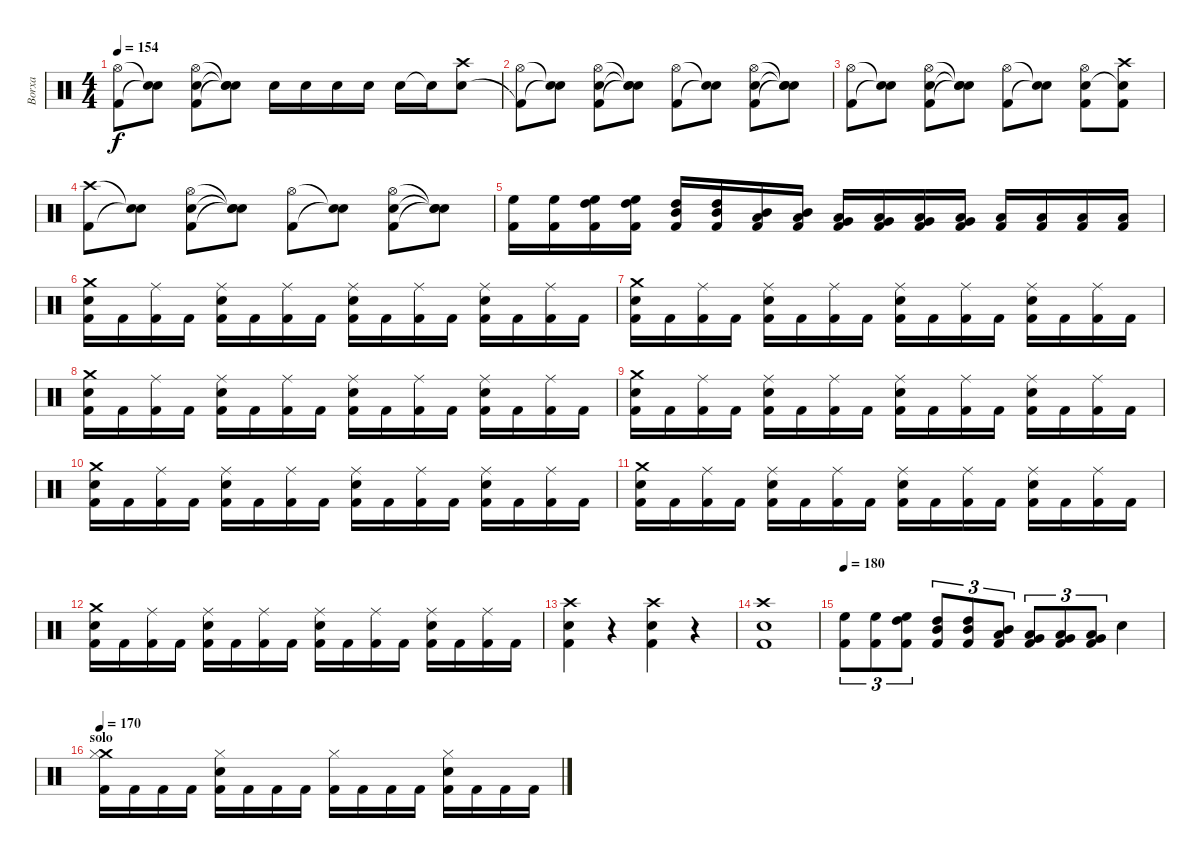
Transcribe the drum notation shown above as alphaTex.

\track ("Borxa" "Borxa") {instrument percussion}
\staff {score}
\articulation defaults
\ts (4 4)
\tempo 154
\clef neutral
\ks c
("Hi-Hat (open)" "Kick (hit) 2").8{dy f} ("Snare (hit)"{t} "Snare (hit)"{t}).8 ("Hi-Hat (open)" "Electric Snare (hit)" "Kick (hit) 2").8 ("Snare (hit)"{t} "Snare (hit)"{t} "Snare (hit)"{t}).8 "Snare (hit) 2".16 "Snare (hit) 2".16 "Snare (hit) 2".16 "Snare (hit) 2".16 "Snare (hit) 2".16 "Snare (hit) 2"{t}.16 ("Crash high (hit)" "Snare (hit) 2").8 |
("Hi-Hat (open)" "Kick (hit) 2"{t}).8 ("Snare (hit)"{t} "Snare (hit)"{t}).8 ("Hi-Hat (open)" "Electric Snare (hit)" "Kick (hit) 2").8 ("Snare (hit)"{t} "Snare (hit)"{t} "Snare (hit)"{t}).8 ("Hi-Hat (open)" "Kick (hit) 2").8 ("Snare (hit)"{t} "Snare (hit)"{t}).8 ("Hi-Hat (open)" "Electric Snare (hit)" "Kick (hit) 2").8 ("Snare (hit)"{t} "Snare (hit)"{t} "Snare (hit)"{t}).8 |
("Hi-Hat (open)" "Kick (hit) 2").8 ("Snare (hit)"{t} "Snare (hit)"{t}).8 ("Hi-Hat (open)" "Electric Snare (hit)" "Kick (hit) 2").8 ("Snare (hit)"{t} "Snare (hit)"{t} "Snare (hit)"{t}).8 ("Hi-Hat (open)" "Kick (hit) 2").8 ("Snare (hit)"{t} "Snare (hit)"{t}).8 ("Hi-Hat (open)" "Electric Snare (hit)" "Kick (hit) 2").8 ("Crash high (hit)" "Snare (hit)"{t} "Kick (hit) 2").8 |
("Crash high (hit)" "Kick (hit) 2").8 ("Snare (hit)"{t} "Snare (hit)"{t}).8 ("Hi-Hat (open)" "Electric Snare (hit)" "Kick (hit) 2").8 ("Snare (hit)"{t} "Snare (hit)"{t} "Snare (hit)"{t}).8 ("Hi-Hat (open)" "Kick (hit) 2").8 ("Snare (hit)"{t} "Snare (hit)"{t}).8 ("Hi-Hat (open)" "Electric Snare (hit)" "Kick (hit) 2").8 ("Snare (hit)"{t} "Snare (hit)"{t} "Snare (hit)"{t}).8 |
("High Floor Tom (hit)" "Kick (hit) 2").16 ("High Floor Tom (hit)" "Kick (hit) 2").16 ("High Floor Tom (hit)" "High Tom (hit)" "Kick (hit) 2").16 ("High Floor Tom (hit)" "High Tom (hit)" "Kick (hit) 2").16 ("High Tom (hit)" "Mid Tom (hit)" "Kick (hit) 2").16 ("High Tom (hit)" "Mid Tom (hit)" "Kick (hit) 2").16 ("Mid Tom (hit)" "Low Tom (hit)" "Kick (hit) 2").16 ("Mid Tom (hit)" "Low Tom (hit)" "Kick (hit) 2").16 ("Low Tom (hit)" "Very Low Tom (hit)" "Kick (hit) 2").16 ("Low Tom (hit)" "Very Low Tom (hit)" "Kick (hit) 2").16 ("Low Floor Tom (hit)" "Very Low Tom (hit)" "Kick (hit) 2").16 ("Low Floor Tom (hit)" "Very Low Tom (hit)" "Kick (hit) 2").16 ("Low Floor Tom (hit)" "Kick (hit) 2").16 ("Low Floor Tom (hit)" "Kick (hit) 2").16 ("Low Floor Tom (hit)" "Kick (hit) 2").16 ("Low Floor Tom (hit)" "Kick (hit) 2").16 |
("Crash medium (hit)" "Snare (hit) 2" "Kick (hit) 2").16 "Kick (hit) 2".16 ("Ride (middle)" "Kick (hit) 2").16 "Kick (hit) 2".16 ("Snare (hit) 2" "Ride (middle)" "Kick (hit) 2").16 "Kick (hit) 2".16 ("Ride (middle)" "Kick (hit) 2").16 "Kick (hit) 2".16 ("Snare (hit) 2" "Ride (middle)" "Kick (hit) 2").16 "Kick (hit) 2".16 ("Ride (middle)" "Kick (hit) 2").16 "Kick (hit) 2".16 ("Snare (hit) 2" "Ride (middle)" "Kick (hit) 2").16 "Kick (hit) 2".16 ("Ride (middle)" "Kick (hit) 2").16 "Kick (hit) 2".16 |
("Crash medium (hit)" "Snare (hit) 2" "Kick (hit) 2").16 "Kick (hit) 2".16 ("Ride (middle)" "Kick (hit) 2").16 "Kick (hit) 2".16 ("Snare (hit) 2" "Ride (middle)" "Kick (hit) 2").16 "Kick (hit) 2".16 ("Ride (middle)" "Kick (hit) 2").16 "Kick (hit) 2".16 ("Snare (hit) 2" "Ride (middle)" "Kick (hit) 2").16 "Kick (hit) 2".16 ("Ride (middle)" "Kick (hit) 2").16 "Kick (hit) 2".16 ("Snare (hit) 2" "Ride (middle)" "Kick (hit) 2").16 "Kick (hit) 2".16 ("Ride (middle)" "Kick (hit) 2").16 "Kick (hit) 2".16 |
("Crash medium (hit)" "Snare (hit) 2" "Kick (hit) 2").16 "Kick (hit) 2".16 ("Ride (middle)" "Kick (hit) 2").16 "Kick (hit) 2".16 ("Snare (hit) 2" "Ride (middle)" "Kick (hit) 2").16 "Kick (hit) 2".16 ("Ride (middle)" "Kick (hit) 2").16 "Kick (hit) 2".16 ("Snare (hit) 2" "Ride (middle)" "Kick (hit) 2").16 "Kick (hit) 2".16 ("Ride (middle)" "Kick (hit) 2").16 "Kick (hit) 2".16 ("Snare (hit) 2" "Ride (middle)" "Kick (hit) 2").16 "Kick (hit) 2".16 ("Ride (middle)" "Kick (hit) 2").16 "Kick (hit) 2".16 |
("Crash medium (hit)" "Snare (hit) 2" "Kick (hit) 2").16 "Kick (hit) 2".16 ("Ride (middle)" "Kick (hit) 2").16 "Kick (hit) 2".16 ("Snare (hit) 2" "Ride (middle)" "Kick (hit) 2").16 "Kick (hit) 2".16 ("Ride (middle)" "Kick (hit) 2").16 "Kick (hit) 2".16 ("Snare (hit) 2" "Ride (middle)" "Kick (hit) 2").16 "Kick (hit) 2".16 ("Ride (middle)" "Kick (hit) 2").16 "Kick (hit) 2".16 ("Snare (hit) 2" "Ride (middle)" "Kick (hit) 2").16 "Kick (hit) 2".16 ("Ride (middle)" "Kick (hit) 2").16 "Kick (hit) 2".16 |
("Crash medium (hit)" "Snare (hit) 2" "Kick (hit) 2").16 "Kick (hit) 2".16 ("Ride (middle)" "Kick (hit) 2").16 "Kick (hit) 2".16 ("Snare (hit) 2" "Ride (middle)" "Kick (hit) 2").16 "Kick (hit) 2".16 ("Ride (middle)" "Kick (hit) 2").16 "Kick (hit) 2".16 ("Snare (hit) 2" "Ride (middle)" "Kick (hit) 2").16 "Kick (hit) 2".16 ("Ride (middle)" "Kick (hit) 2").16 "Kick (hit) 2".16 ("Snare (hit) 2" "Ride (middle)" "Kick (hit) 2").16 "Kick (hit) 2".16 ("Ride (middle)" "Kick (hit) 2").16 "Kick (hit) 2".16 |
("Crash medium (hit)" "Snare (hit) 2" "Kick (hit) 2").16 "Kick (hit) 2".16 ("Ride (middle)" "Kick (hit) 2").16 "Kick (hit) 2".16 ("Snare (hit) 2" "Ride (middle)" "Kick (hit) 2").16 "Kick (hit) 2".16 ("Ride (middle)" "Kick (hit) 2").16 "Kick (hit) 2".16 ("Snare (hit) 2" "Ride (middle)" "Kick (hit) 2").16 "Kick (hit) 2".16 ("Ride (middle)" "Kick (hit) 2").16 "Kick (hit) 2".16 ("Snare (hit) 2" "Ride (middle)" "Kick (hit) 2").16 "Kick (hit) 2".16 ("Ride (middle)" "Kick (hit) 2").16 "Kick (hit) 2".16 |
("Crash medium (hit)" "Snare (hit) 2" "Kick (hit) 2").16 "Kick (hit) 2".16 ("Ride (middle)" "Kick (hit) 2").16 "Kick (hit) 2".16 ("Snare (hit) 2" "Ride (middle)" "Kick (hit) 2").16 "Kick (hit) 2".16 ("Ride (middle)" "Kick (hit) 2").16 "Kick (hit) 2".16 ("Snare (hit) 2" "Ride (middle)" "Kick (hit) 2").16 "Kick (hit) 2".16 ("Ride (middle)" "Kick (hit) 2").16 "Kick (hit) 2".16 ("Snare (hit) 2" "Ride (middle)" "Kick (hit) 2").16 "Kick (hit) 2".16 ("Ride (middle)" "Kick (hit) 2").16 "Kick (hit) 2".16 |
("Crash high (hit)" "Snare (hit) 2" "Kick (hit) 2").4 r.4 ("Crash high (hit)" "Snare (hit) 2" "Kick (hit) 2").4 r.4 |
("Crash high (hit)" "Snare (hit) 2" "Kick (hit) 2").1 |
\tempo 180
("High Floor Tom (hit)" "Kick (hit) 2").8{tu (3 2)} ("High Floor Tom (hit)" "Kick (hit) 2").8{tu (3 2)} ("High Floor Tom (hit)" "High Tom (hit)" "Kick (hit) 2").8{tu (3 2)} ("High Tom (hit)" "Mid Tom (hit)" "Kick (hit) 2").8{tu (3 2)} ("High Tom (hit)" "Mid Tom (hit)" "Kick (hit) 2").8{tu (3 2)} ("Mid Tom (hit)" "Low Tom (hit)" "Kick (hit) 2").8{tu (3 2)} ("Low Tom (hit)" "Very Low Tom (hit)" "Kick (hit) 2").8{tu (3 2)} ("Low Tom (hit)" "Very Low Tom (hit)" "Kick (hit) 2").8{tu (3 2)} ("Low Floor Tom (hit)" "Very Low Tom (hit)" "Kick (hit) 2").8{tu (3 2)} "Snare (hit) 2".4 |
\section ("" "solo")
\tempo 170
("Crash medium (hit)" "Hi-Hat (closed)" "Kick (hit) 2").16{volume 13} "Kick (hit) 2".16 "Kick (hit) 2".16 "Kick (hit) 2".16 ("Snare (hit) 2" "Hi-Hat (closed)" "Kick (hit) 2").16 "Kick (hit) 2".16 "Kick (hit) 2".16 "Kick (hit) 2".16 ("Hi-Hat (closed)" "Kick (hit) 2").16 "Kick (hit) 2".16 "Kick (hit) 2".16 "Kick (hit) 2".16 ("Snare (hit) 2" "Hi-Hat (closed)" "Kick (hit) 2").16 "Kick (hit) 2".16 "Kick (hit) 2".16 "Kick (hit) 2".16
